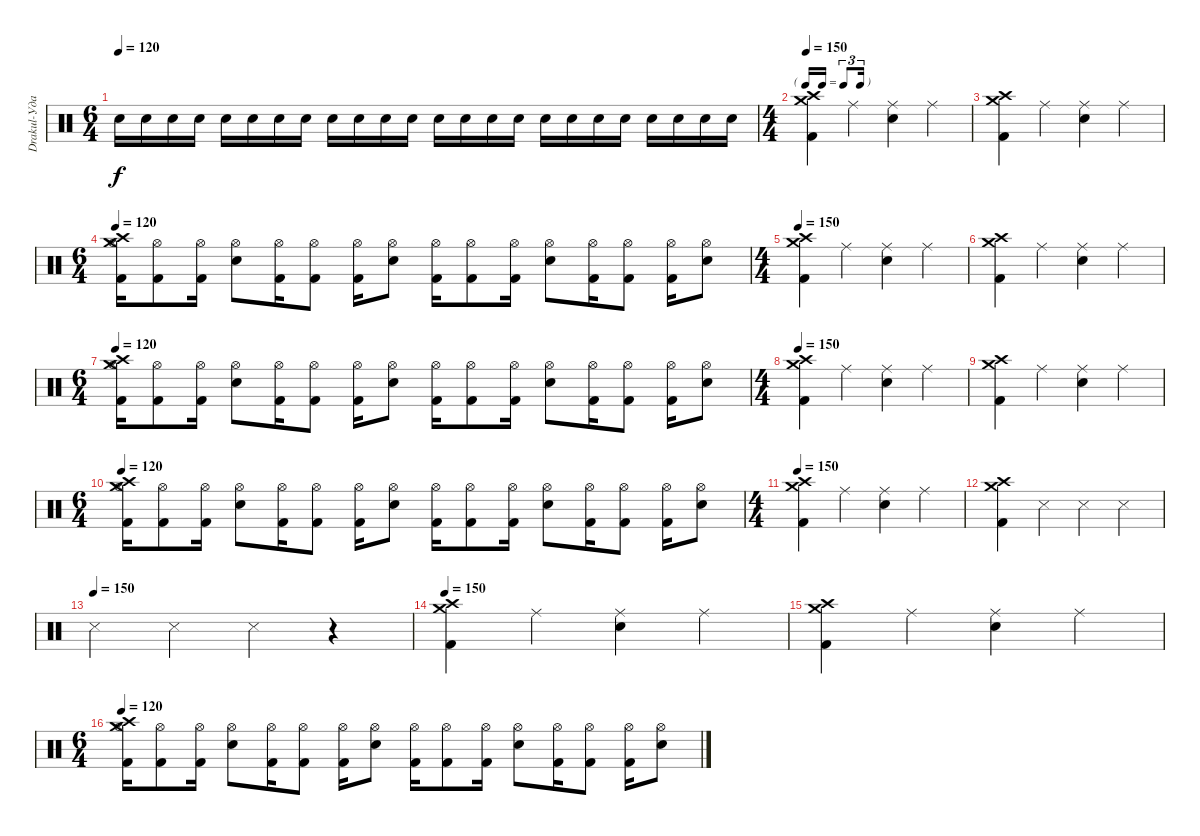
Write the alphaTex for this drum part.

\track ("Drakul-Ударные " "Drakul-Уда") {instrument percussion}
\staff {score}
\articulation defaults
\ts (6 4)
\tempo 120
\clef neutral
\ks c "Electric Snare (hit)".16{dy f} "Electric Snare (hit)".16 "Electric Snare (hit)".16 "Electric Snare (hit)".16 "Electric Snare (hit)".16 "Electric Snare (hit)".16 "Electric Snare (hit)".16 "Electric Snare (hit)".16 "Electric Snare (hit)".16 "Electric Snare (hit)".16 "Electric Snare (hit)".16 "Electric Snare (hit)".16 "Electric Snare (hit)".16 "Electric Snare (hit)".16 "Electric Snare (hit)".16 "Electric Snare (hit)".16 "Electric Snare (hit)".16 "Electric Snare (hit)".16 "Electric Snare (hit)".16 "Electric Snare (hit)".16 "Electric Snare (hit)".16 "Electric Snare (hit)".16 "Electric Snare (hit)".16 "Electric Snare (hit)".16
|
\ts (4 4)
\tf triplet16th
\tempo 150
("Kick (hit) 2" "Crash high (hit)" "Crash medium (hit)").4 "Ride (middle)".4 ("Electric Snare (hit)" "Ride (middle)").4 "Ride (middle)".4 |
("Kick (hit) 2" "Crash high (hit)" "Crash medium (hit)").4 "Ride (middle)".4 ("Electric Snare (hit)" "Ride (middle)").4 "Ride (middle)".4 |
\ts (6 4)
\tempo 120
("Kick (hit) 2" "Hi-Hat (open)" "Crash high (hit)" "Crash medium (hit)").16 ("Kick (hit) 2" "Hi-Hat (open)").8 ("Kick (hit) 2" "Hi-Hat (open)").16 ("Electric Snare (hit)" "Hi-Hat (open)").8 ("Kick (hit) 2" "Hi-Hat (open)").16 ("Kick (hit) 2" "Hi-Hat (open)").8 ("Kick (hit) 2" "Hi-Hat (open)").16 ("Electric Snare (hit)" "Hi-Hat (open)").8 ("Kick (hit) 2" "Hi-Hat (open)").16 ("Kick (hit) 2" "Hi-Hat (open)").8 ("Kick (hit) 2" "Hi-Hat (open)").16 ("Electric Snare (hit)" "Hi-Hat (open)").8 ("Kick (hit) 2" "Hi-Hat (open)").16 ("Kick (hit) 2" "Hi-Hat (open)").8 ("Kick (hit) 2" "Hi-Hat (open)").16 ("Electric Snare (hit)" "Hi-Hat (open)").8 |
\ts (4 4)
\tempo 150
("Kick (hit) 2" "Crash high (hit)" "Crash medium (hit)").4 "Ride (middle)".4 ("Electric Snare (hit)" "Ride (middle)").4 "Ride (middle)".4 |
("Kick (hit) 2" "Crash high (hit)" "Crash medium (hit)").4 "Ride (middle)".4 ("Electric Snare (hit)" "Ride (middle)").4 "Ride (middle)".4 |
\ts (6 4)
\tempo 120
("Kick (hit) 2" "Hi-Hat (open)" "Crash high (hit)" "Crash medium (hit)").16 ("Kick (hit) 2" "Hi-Hat (open)").8 ("Kick (hit) 2" "Hi-Hat (open)").16 ("Electric Snare (hit)" "Hi-Hat (open)").8 ("Kick (hit) 2" "Hi-Hat (open)").16 ("Kick (hit) 2" "Hi-Hat (open)").8 ("Kick (hit) 2" "Hi-Hat (open)").16 ("Electric Snare (hit)" "Hi-Hat (open)").8 ("Kick (hit) 2" "Hi-Hat (open)").16 ("Kick (hit) 2" "Hi-Hat (open)").8 ("Kick (hit) 2" "Hi-Hat (open)").16 ("Electric Snare (hit)" "Hi-Hat (open)").8 ("Kick (hit) 2" "Hi-Hat (open)").16 ("Kick (hit) 2" "Hi-Hat (open)").8 ("Kick (hit) 2" "Hi-Hat (open)").16 ("Electric Snare (hit)" "Hi-Hat (open)").8 |
\ts (4 4)
\tempo 150
("Kick (hit) 2" "Crash high (hit)" "Crash medium (hit)").4 "Ride (middle)".4 ("Electric Snare (hit)" "Ride (middle)").4 "Ride (middle)".4 |
("Kick (hit) 2" "Crash high (hit)" "Crash medium (hit)").4 "Ride (middle)".4 ("Electric Snare (hit)" "Ride (middle)").4 "Ride (middle)".4 |
\ts (6 4)
\tempo 120
("Kick (hit) 2" "Hi-Hat (open)" "Crash high (hit)" "Crash medium (hit)").16 ("Kick (hit) 2" "Hi-Hat (open)").8 ("Kick (hit) 2" "Hi-Hat (open)").16 ("Electric Snare (hit)" "Hi-Hat (open)").8 ("Kick (hit) 2" "Hi-Hat (open)").16 ("Kick (hit) 2" "Hi-Hat (open)").8 ("Kick (hit) 2" "Hi-Hat (open)").16 ("Electric Snare (hit)" "Hi-Hat (open)").8 ("Kick (hit) 2" "Hi-Hat (open)").16 ("Kick (hit) 2" "Hi-Hat (open)").8 ("Kick (hit) 2" "Hi-Hat (open)").16 ("Electric Snare (hit)" "Hi-Hat (open)").8 ("Kick (hit) 2" "Hi-Hat (open)").16 ("Kick (hit) 2" "Hi-Hat (open)").8 ("Kick (hit) 2" "Hi-Hat (open)").16 ("Electric Snare (hit)" "Hi-Hat (open)").8 |
\ts (4 4)
\tempo 150
("Kick (hit) 2" "Crash high (hit)" "Crash medium (hit)").4 "Ride (middle)".4 ("Electric Snare (hit)" "Ride (middle)").4 "Ride (middle)".4 |
("Kick (hit) 2" "Crash high (hit)" "Crash medium (hit)").4 "Snare (side stick) 3".4 "Snare (side stick) 3".4 "Snare (side stick) 3".4 |
\tempo (150)
"Snare (side stick) 3".4 "Snare (side stick) 3".4 "Snare (side stick) 3".4 r.4 |
\tempo 150
("Kick (hit) 2" "Crash high (hit)" "Crash medium (hit)").4 "Ride (middle)".4 ("Electric Snare (hit)" "Ride (middle)").4 "Ride (middle)".4 |
("Kick (hit) 2" "Crash high (hit)" "Crash medium (hit)").4 "Ride (middle)".4 ("Electric Snare (hit)" "Ride (middle)").4 "Ride (middle)".4 |
\ts (6 4)
\tempo 120
("Kick (hit) 2" "Hi-Hat (open)" "Crash high (hit)" "Crash medium (hit)").16 ("Kick (hit) 2" "Hi-Hat (open)").8 ("Kick (hit) 2" "Hi-Hat (open)").16 ("Electric Snare (hit)" "Hi-Hat (open)").8 ("Kick (hit) 2" "Hi-Hat (open)").16 ("Kick (hit) 2" "Hi-Hat (open)").8 ("Kick (hit) 2" "Hi-Hat (open)").16 ("Electric Snare (hit)" "Hi-Hat (open)").8 ("Kick (hit) 2" "Hi-Hat (open)").16 ("Kick (hit) 2" "Hi-Hat (open)").8 ("Kick (hit) 2" "Hi-Hat (open)").16 ("Electric Snare (hit)" "Hi-Hat (open)").8 ("Kick (hit) 2" "Hi-Hat (open)").16 ("Kick (hit) 2" "Hi-Hat (open)").8 ("Kick (hit) 2" "Hi-Hat (open)").16 ("Electric Snare (hit)" "Hi-Hat (open)").8
